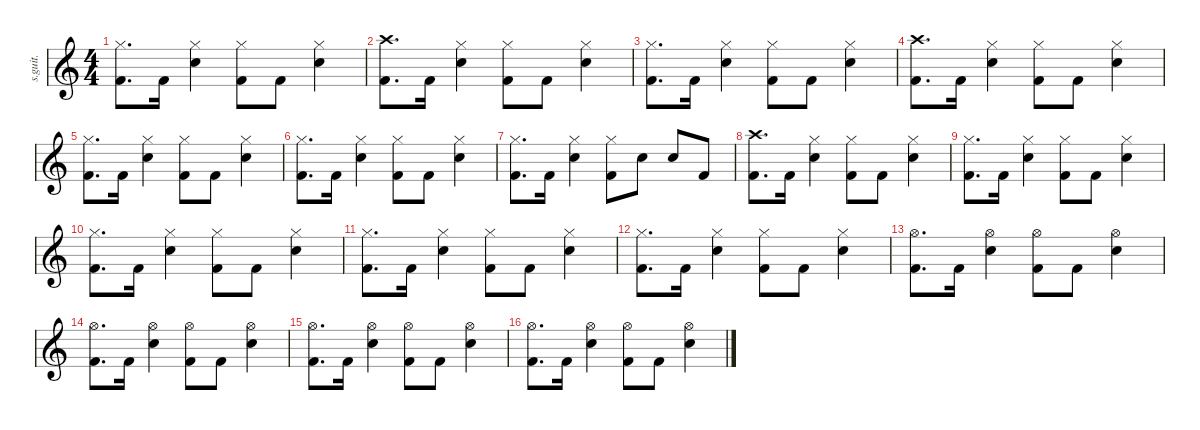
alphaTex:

\defaultSystemsLayout 4
\hideDynamics
\bracketExtendMode nobrackets
\track ("" "s.guit.") {instrument percussion}
\staff {score}
\articulation defaults
\ts (4 4)
\tempo (180 hide)
\clef g2
\ks c
("Kick (hit) 2" "Hi-Hat (closed)").8{d dy f} "Kick (hit) 2".16 ("Snare (hit) 2" "Hi-Hat (closed)").4 ("Kick (hit) 2" "Hi-Hat (closed)").8 "Kick (hit) 2".8 ("Snare (hit) 2" "Hi-Hat (closed)").4 |
("Kick (hit) 2" "Crash high (hit)").8{d} "Kick (hit) 2".16 ("Snare (hit) 2" "Hi-Hat (closed)").4 ("Kick (hit) 2" "Hi-Hat (closed)").8 "Kick (hit) 2".8 ("Snare (hit) 2" "Hi-Hat (closed)").4 |
("Kick (hit) 2" "Hi-Hat (closed)").8{d} "Kick (hit) 2".16 ("Snare (hit) 2" "Hi-Hat (closed)").4 ("Kick (hit) 2" "Hi-Hat (closed)").8 "Kick (hit) 2".8 ("Snare (hit) 2" "Hi-Hat (closed)").4 |
("Kick (hit) 2" "Crash high (hit)").8{d} "Kick (hit) 2".16 ("Snare (hit) 2" "Hi-Hat (closed)").4 ("Kick (hit) 2" "Hi-Hat (closed)").8 "Kick (hit) 2".8 ("Snare (hit) 2" "Hi-Hat (closed)").4 |
("Kick (hit) 2" "Hi-Hat (closed)").8{d} "Kick (hit) 2".16 ("Snare (hit) 2" "Hi-Hat (closed)").4 ("Kick (hit) 2" "Hi-Hat (closed)").8 "Kick (hit) 2".8 ("Snare (hit) 2" "Hi-Hat (closed)").4 |
("Kick (hit) 2" "Hi-Hat (closed)").8{d} "Kick (hit) 2".16 ("Snare (hit) 2" "Hi-Hat (closed)").4 ("Kick (hit) 2" "Hi-Hat (closed)").8 "Kick (hit) 2".8 ("Snare (hit) 2" "Hi-Hat (closed)").4 |
("Kick (hit) 2" "Hi-Hat (closed)").8{d} "Kick (hit) 2".16 ("Snare (hit) 2" "Hi-Hat (closed)").4 ("Kick (hit) 2" "Hi-Hat (closed)").8 "Snare (hit) 2".8 "Snare (hit) 2".8 "Kick (hit) 2".8 |
("Kick (hit) 2" "Crash high (hit)").8{d} "Kick (hit) 2".16 ("Snare (hit) 2" "Hi-Hat (closed)").4 ("Kick (hit) 2" "Hi-Hat (closed)").8 "Kick (hit) 2".8 ("Snare (hit) 2" "Hi-Hat (closed)").4 |
("Kick (hit) 2" "Hi-Hat (closed)").8{d} "Kick (hit) 2".16 ("Snare (hit) 2" "Hi-Hat (closed)").4 ("Kick (hit) 2" "Hi-Hat (closed)").8 "Kick (hit) 2".8 ("Snare (hit) 2" "Hi-Hat (closed)").4 |
("Kick (hit) 2" "Hi-Hat (closed)").8{d} "Kick (hit) 2".16 ("Snare (hit) 2" "Hi-Hat (closed)").4 ("Kick (hit) 2" "Hi-Hat (closed)").8 "Kick (hit) 2".8 ("Snare (hit) 2" "Hi-Hat (closed)").4 |
("Kick (hit) 2" "Hi-Hat (closed)").8{d} "Kick (hit) 2".16 ("Snare (hit) 2" "Hi-Hat (closed)").4 ("Kick (hit) 2" "Hi-Hat (closed)").8 "Kick (hit) 2".8 ("Snare (hit) 2" "Hi-Hat (closed)").4 |
("Kick (hit) 2" "Hi-Hat (closed)").8{d} "Kick (hit) 2".16 ("Snare (hit) 2" "Hi-Hat (closed)").4 ("Kick (hit) 2" "Hi-Hat (closed)").8 "Kick (hit) 2".8 ("Snare (hit) 2" "Hi-Hat (closed)").4 |
("Kick (hit) 2" "Hi-Hat (open)").8{d} "Kick (hit) 2".16 ("Snare (hit) 2" "Hi-Hat (open)").4 ("Kick (hit) 2" "Hi-Hat (open)").8 "Kick (hit) 2".8 ("Snare (hit) 2" "Hi-Hat (open)").4 |
("Kick (hit) 2" "Hi-Hat (open)").8{d} "Kick (hit) 2".16 ("Snare (hit) 2" "Hi-Hat (open)").4 ("Kick (hit) 2" "Hi-Hat (open)").8 "Kick (hit) 2".8 ("Snare (hit) 2" "Hi-Hat (open)").4 |
("Kick (hit) 2" "Hi-Hat (open)").8{d} "Kick (hit) 2".16 ("Snare (hit) 2" "Hi-Hat (open)").4 ("Kick (hit) 2" "Hi-Hat (open)").8 "Kick (hit) 2".8 ("Snare (hit) 2" "Hi-Hat (open)").4 |
("Kick (hit) 2" "Hi-Hat (open)").8{d} "Kick (hit) 2".16 ("Snare (hit) 2" "Hi-Hat (open)").4 ("Kick (hit) 2" "Hi-Hat (open)").8 "Kick (hit) 2".8 ("Snare (hit) 2" "Hi-Hat (open)").4
